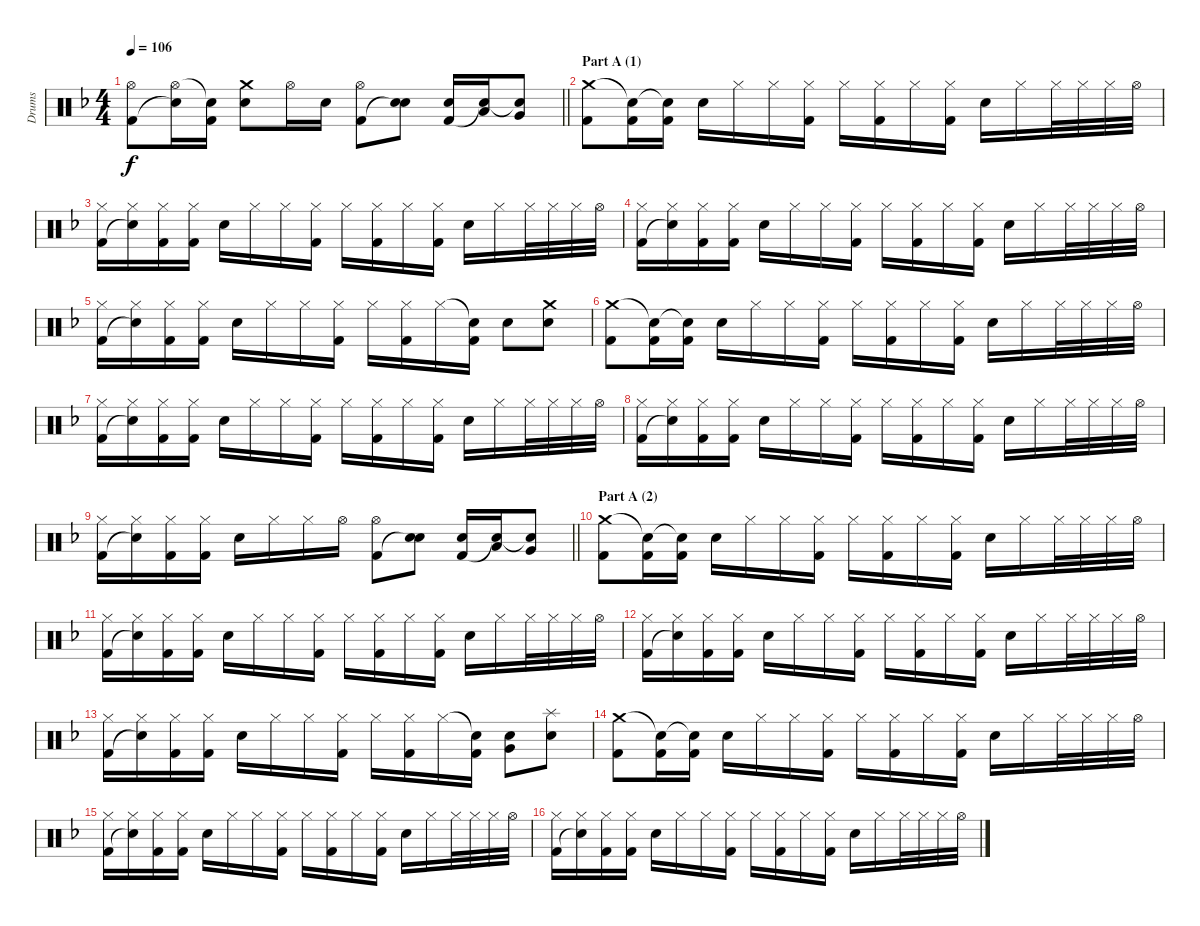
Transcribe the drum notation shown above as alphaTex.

\track ("Drums" "Drums") {instrument percussion}
\staff {score}
\articulation defaults
\ts (4 4)
\tempo 106
\clef neutral
\barLineRight lightlight
\ks f
("Hi-Hat (open)" "Kick (hit) 2").8{dy f} ("Hi-Hat (open)" "Snare (hit)"{t}).16 ("Snare (hit)"{t} "Kick (hit) 2").16 ("Crash medium (hit)" "Electric Snare (hit)").8 "Hi-Hat (open)".16 "Electric Snare (hit)".16 ("Hi-Hat (open)" "Kick (hit) 2").8 ("Electric Snare (hit)" "Snare (hit)"{t}).8 ("Electric Snare (hit)" "Kick (hit) 2").16 ("Low Tom (hit)" "Snare (hit)"{t}).16 ("Very Low Tom (hit)" "Snare (hit)"{t}).8 |
\section ("" "Part A (1)")
("Crash medium (hit)" "Kick (hit) 2").8 ("Snare (hit)"{t} "Kick (hit) 2").16 ("Snare (hit)"{t} "Kick (hit) 2").16 "Electric Snare (hit)".16 "Hi-Hat (closed)".16 "Hi-Hat (closed)".16 ("Hi-Hat (closed)" "Kick (hit) 2").16 "Hi-Hat (closed)".16 ("Hi-Hat (closed)" "Kick (hit) 2").16 "Hi-Hat (closed)".16 ("Hi-Hat (closed)" "Kick (hit) 2").16 "Electric Snare (hit)".16 "Hi-Hat (closed)".16 "Hi-Hat (closed)".32 "Hi-Hat (closed)".32 "Hi-Hat (closed)".32 "Hi-Hat (open)".32 |
("Hi-Hat (closed)" "Kick (hit) 2").16 ("Hi-Hat (closed)" "Snare (hit)"{t}).16 ("Hi-Hat (closed)" "Kick (hit) 2").16 ("Hi-Hat (closed)" "Kick (hit) 2").16 "Electric Snare (hit)".16 "Hi-Hat (closed)".16 "Hi-Hat (closed)".16 ("Hi-Hat (closed)" "Kick (hit) 2").16 "Hi-Hat (closed)".16 ("Hi-Hat (closed)" "Kick (hit) 2").16 "Hi-Hat (closed)".16 ("Hi-Hat (closed)" "Kick (hit) 2").16 "Electric Snare (hit)".16 "Hi-Hat (closed)".16 "Hi-Hat (closed)".32 "Hi-Hat (closed)".32 "Hi-Hat (closed)".32 "Hi-Hat (open)".32 |
("Hi-Hat (closed)" "Kick (hit) 2").16 ("Hi-Hat (closed)" "Snare (hit)"{t}).16 ("Hi-Hat (closed)" "Kick (hit) 2").16 ("Hi-Hat (closed)" "Kick (hit) 2").16 "Electric Snare (hit)".16 "Hi-Hat (closed)".16 "Hi-Hat (closed)".16 ("Hi-Hat (closed)" "Kick (hit) 2").16 "Hi-Hat (closed)".16 ("Hi-Hat (closed)" "Kick (hit) 2").16 "Hi-Hat (closed)".16 ("Hi-Hat (closed)" "Kick (hit) 2").16 "Electric Snare (hit)".16 "Hi-Hat (closed)".16 "Hi-Hat (closed)".32 "Hi-Hat (closed)".32 "Hi-Hat (closed)".32 "Hi-Hat (open)".32 |
("Hi-Hat (closed)" "Kick (hit) 2").16 ("Hi-Hat (closed)" "Snare (hit)"{t}).16 ("Hi-Hat (closed)" "Kick (hit) 2").16 ("Hi-Hat (closed)" "Kick (hit) 2").16 "Electric Snare (hit)".16 "Hi-Hat (closed)".16 "Hi-Hat (closed)".16 ("Hi-Hat (closed)" "Kick (hit) 2").16 "Hi-Hat (closed)".16 ("Hi-Hat (closed)" "Kick (hit) 2").16 "Hi-Hat (closed)".16 ("Snare (hit)"{t} "Kick (hit) 2").16 "Electric Snare (hit)".8 ("Crash medium (hit)" "Electric Snare (hit)").8 |
("Crash medium (hit)" "Kick (hit) 2").8 ("Snare (hit)"{t} "Kick (hit) 2").16 ("Snare (hit)"{t} "Kick (hit) 2").16 "Electric Snare (hit)".16 "Hi-Hat (closed)".16 "Hi-Hat (closed)".16 ("Hi-Hat (closed)" "Kick (hit) 2").16 "Hi-Hat (closed)".16 ("Hi-Hat (closed)" "Kick (hit) 2").16 "Hi-Hat (closed)".16 ("Hi-Hat (closed)" "Kick (hit) 2").16 "Electric Snare (hit)".16 "Hi-Hat (closed)".16 "Hi-Hat (closed)".32 "Hi-Hat (closed)".32 "Hi-Hat (closed)".32 "Hi-Hat (open)".32 |
("Hi-Hat (closed)" "Kick (hit) 2").16 ("Hi-Hat (closed)" "Snare (hit)"{t}).16 ("Hi-Hat (closed)" "Kick (hit) 2").16 ("Hi-Hat (closed)" "Kick (hit) 2").16 "Electric Snare (hit)".16 "Hi-Hat (closed)".16 "Hi-Hat (closed)".16 ("Hi-Hat (closed)" "Kick (hit) 2").16 "Hi-Hat (closed)".16 ("Hi-Hat (closed)" "Kick (hit) 2").16 "Hi-Hat (closed)".16 ("Hi-Hat (closed)" "Kick (hit) 2").16 "Electric Snare (hit)".16 "Hi-Hat (closed)".16 "Hi-Hat (closed)".32 "Hi-Hat (closed)".32 "Hi-Hat (closed)".32 "Hi-Hat (open)".32 |
("Hi-Hat (closed)" "Kick (hit) 2").16 ("Hi-Hat (closed)" "Snare (hit)"{t}).16 ("Hi-Hat (closed)" "Kick (hit) 2").16 ("Hi-Hat (closed)" "Kick (hit) 2").16 "Electric Snare (hit)".16 "Hi-Hat (closed)".16 "Hi-Hat (closed)".16 ("Hi-Hat (closed)" "Kick (hit) 2").16 "Hi-Hat (closed)".16 ("Hi-Hat (closed)" "Kick (hit) 2").16 "Hi-Hat (closed)".16 ("Hi-Hat (closed)" "Kick (hit) 2").16 "Electric Snare (hit)".16 "Hi-Hat (closed)".16 "Hi-Hat (closed)".32 "Hi-Hat (closed)".32 "Hi-Hat (closed)".32 "Hi-Hat (open)".32 |
\barLineRight lightlight
("Hi-Hat (closed)" "Kick (hit) 2").16 ("Hi-Hat (closed)" "Snare (hit)"{t}).16 ("Hi-Hat (closed)" "Kick (hit) 2").16 ("Hi-Hat (closed)" "Kick (hit) 2").16 "Electric Snare (hit)".16 "Hi-Hat (closed)".16 "Hi-Hat (closed)".16 "Hi-Hat (open)".16 ("Hi-Hat (open)" "Kick (hit) 2").8 ("Electric Snare (hit)" "Snare (hit)"{t}).8 ("Electric Snare (hit)" "Kick (hit) 2").16 ("Low Tom (hit)" "Snare (hit)"{t}).16 ("Very Low Tom (hit)" "Snare (hit)"{t}).8 |
\section ("" "Part A (2)")
("Crash medium (hit)" "Kick (hit) 2").8 ("Snare (hit)"{t} "Kick (hit) 2").16 ("Snare (hit)"{t} "Kick (hit) 2").16 "Electric Snare (hit)".16 "Hi-Hat (closed)".16 "Hi-Hat (closed)".16 ("Hi-Hat (closed)" "Kick (hit) 2").16 "Hi-Hat (closed)".16 ("Hi-Hat (closed)" "Kick (hit) 2").16 "Hi-Hat (closed)".16 ("Hi-Hat (closed)" "Kick (hit) 2").16 "Electric Snare (hit)".16 "Hi-Hat (closed)".16 "Hi-Hat (closed)".32 "Hi-Hat (closed)".32 "Hi-Hat (closed)".32 "Hi-Hat (open)".32 |
("Hi-Hat (closed)" "Kick (hit) 2").16 ("Hi-Hat (closed)" "Snare (hit)"{t}).16 ("Hi-Hat (closed)" "Kick (hit) 2").16 ("Hi-Hat (closed)" "Kick (hit) 2").16 "Electric Snare (hit)".16 "Hi-Hat (closed)".16 "Hi-Hat (closed)".16 ("Hi-Hat (closed)" "Kick (hit) 2").16 "Hi-Hat (closed)".16 ("Hi-Hat (closed)" "Kick (hit) 2").16 "Hi-Hat (closed)".16 ("Hi-Hat (closed)" "Kick (hit) 2").16 "Electric Snare (hit)".16 "Hi-Hat (closed)".16 "Hi-Hat (closed)".32 "Hi-Hat (closed)".32 "Hi-Hat (closed)".32 "Hi-Hat (open)".32 |
("Hi-Hat (closed)" "Kick (hit) 2").16 ("Hi-Hat (closed)" "Snare (hit)"{t}).16 ("Hi-Hat (closed)" "Kick (hit) 2").16 ("Hi-Hat (closed)" "Kick (hit) 2").16 "Electric Snare (hit)".16 "Hi-Hat (closed)".16 "Hi-Hat (closed)".16 ("Hi-Hat (closed)" "Kick (hit) 2").16 "Hi-Hat (closed)".16 ("Hi-Hat (closed)" "Kick (hit) 2").16 "Hi-Hat (closed)".16 ("Hi-Hat (closed)" "Kick (hit) 2").16 "Electric Snare (hit)".16 "Hi-Hat (closed)".16 "Hi-Hat (closed)".32 "Hi-Hat (closed)".32 "Hi-Hat (closed)".32 "Hi-Hat (open)".32 |
("Hi-Hat (closed)" "Kick (hit) 2").16 ("Hi-Hat (closed)" "Snare (hit)"{t}).16 ("Hi-Hat (closed)" "Kick (hit) 2").16 ("Hi-Hat (closed)" "Kick (hit) 2").16 "Electric Snare (hit)".16 "Hi-Hat (closed)".16 "Hi-Hat (closed)".16 ("Hi-Hat (closed)" "Kick (hit) 2").16 "Hi-Hat (closed)".16 ("Hi-Hat (closed)" "Kick (hit) 2").16 "Hi-Hat (closed)".16 ("Snare (hit)"{t} "Kick (hit) 2").16 ("Electric Snare (hit)" "Very Low Tom (hit)").8 ("Splash (hit)" "Electric Snare (hit)").8 |
("Crash medium (hit)" "Kick (hit) 2").8 ("Snare (hit)"{t} "Kick (hit) 2").16 ("Snare (hit)"{t} "Kick (hit) 2").16 "Electric Snare (hit)".16 "Hi-Hat (closed)".16 "Hi-Hat (closed)".16 ("Hi-Hat (closed)" "Kick (hit) 2").16 "Hi-Hat (closed)".16 ("Hi-Hat (closed)" "Kick (hit) 2").16 "Hi-Hat (closed)".16 ("Hi-Hat (closed)" "Kick (hit) 2").16 "Electric Snare (hit)".16 "Hi-Hat (closed)".16 "Hi-Hat (closed)".32 "Hi-Hat (closed)".32 "Hi-Hat (closed)".32 "Hi-Hat (open)".32 |
("Hi-Hat (closed)" "Kick (hit) 2").16 ("Hi-Hat (closed)" "Snare (hit)"{t}).16 ("Hi-Hat (closed)" "Kick (hit) 2").16 ("Hi-Hat (closed)" "Kick (hit) 2").16 "Electric Snare (hit)".16 "Hi-Hat (closed)".16 "Hi-Hat (closed)".16 ("Hi-Hat (closed)" "Kick (hit) 2").16 "Hi-Hat (closed)".16 ("Hi-Hat (closed)" "Kick (hit) 2").16 "Hi-Hat (closed)".16 ("Hi-Hat (closed)" "Kick (hit) 2").16 "Electric Snare (hit)".16 "Hi-Hat (closed)".16 "Hi-Hat (closed)".32 "Hi-Hat (closed)".32 "Hi-Hat (closed)".32 "Hi-Hat (open)".32 |
("Hi-Hat (closed)" "Kick (hit) 2").16 ("Hi-Hat (closed)" "Snare (hit)"{t}).16 ("Hi-Hat (closed)" "Kick (hit) 2").16 ("Hi-Hat (closed)" "Kick (hit) 2").16 "Electric Snare (hit)".16 "Hi-Hat (closed)".16 "Hi-Hat (closed)".16 ("Hi-Hat (closed)" "Kick (hit) 2").16 "Hi-Hat (closed)".16 ("Hi-Hat (closed)" "Kick (hit) 2").16 "Hi-Hat (closed)".16 ("Hi-Hat (closed)" "Kick (hit) 2").16 "Electric Snare (hit)".16 "Hi-Hat (closed)".16 "Hi-Hat (closed)".32 "Hi-Hat (closed)".32 "Hi-Hat (closed)".32 "Hi-Hat (open)".32
